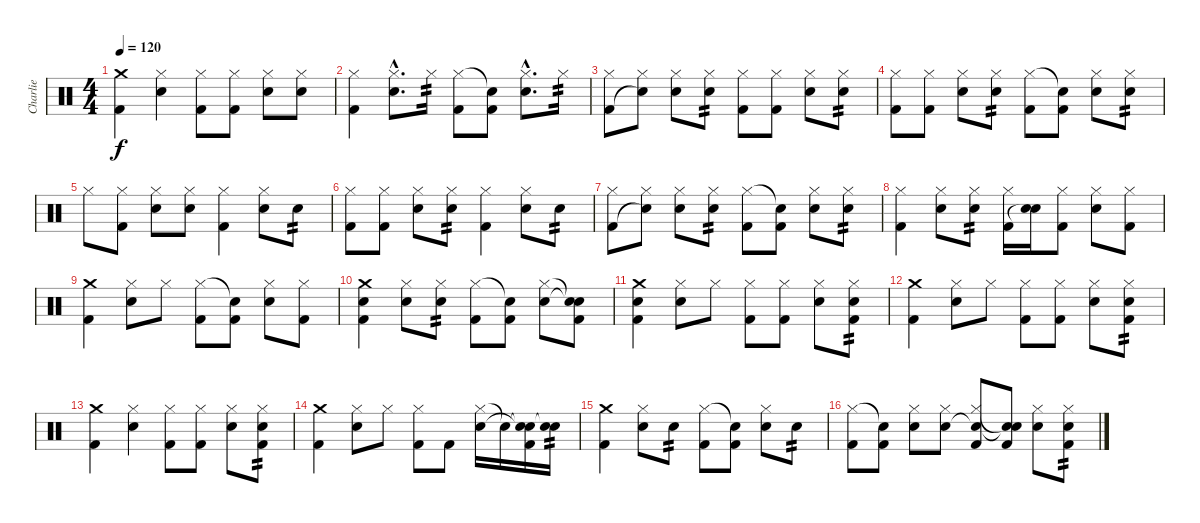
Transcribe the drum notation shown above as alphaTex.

\track ("Charlie" "Charlie") {instrument percussion}
\staff {score}
\articulation defaults
\ts (4 4)
\tempo 120
\clef neutral
\ks c
("Crash medium (hit)" "Kick (hit) 2").4{dy f} ("Hi-Hat (closed)" "Snare (hit) 2").4 ("Hi-Hat (closed)" "Kick (hit) 2").8 ("Hi-Hat (closed)" "Kick (hit) 2").8 ("Hi-Hat (closed)" "Snare (hit) 2").8 ("Hi-Hat (closed)" "Snare (hit) 2").8 |
("Hi-Hat (closed)" "Kick (hit) 2"{x}).4 ("Hi-Hat (closed)"{hac} "Snare (hit) 2"{hac}).8{d} "Hi-Hat (closed)".16{tp 2} ("Hi-Hat (closed)" "Kick (hit) 2").8 ("Snare (hit)"{t} "Kick (hit) 2").8 ("Hi-Hat (closed)"{hac} "Snare (hit) 2"{hac}).8{d} "Hi-Hat (closed)".16{tp 2} |
("Hi-Hat (closed)" "Kick (hit) 2").8 ("Hi-Hat (closed)" "Snare (hit)"{t}).8 ("Hi-Hat (closed)" "Snare (hit) 2").8 ("Hi-Hat (closed)" "Snare (hit) 2").8{tp 2} ("Hi-Hat (closed)" "Kick (hit) 2").8 ("Hi-Hat (closed)" "Kick (hit) 2").8 ("Hi-Hat (closed)" "Snare (hit) 2").8 ("Hi-Hat (closed)" "Snare (hit) 2").8{tp 2} |
("Hi-Hat (closed)" "Kick (hit) 2").8 ("Hi-Hat (closed)" "Kick (hit) 2").8 ("Hi-Hat (closed)" "Snare (hit) 2").8 ("Hi-Hat (closed)" "Snare (hit) 2").8{tp 2} ("Hi-Hat (closed)" "Kick (hit) 2").8 ("Snare (hit)"{t} "Kick (hit) 2").8 ("Hi-Hat (closed)" "Snare (hit) 2").8 ("Hi-Hat (closed)" "Snare (hit) 2").8{tp 2} |
"Hi-Hat (closed)".8 ("Hi-Hat (closed)" "Kick (hit) 2").8 ("Hi-Hat (closed)" "Snare (hit) 2").8 ("Hi-Hat (closed)" "Snare (hit) 2").8 ("Hi-Hat (closed)" "Kick (hit) 2").4 ("Hi-Hat (closed)" "Snare (hit) 2").8 "Snare (hit) 2".8{tp 2} |
("Hi-Hat (closed)" "Kick (hit) 2").8 ("Hi-Hat (closed)" "Kick (hit) 2").8 ("Hi-Hat (closed)" "Snare (hit) 2").8 ("Hi-Hat (closed)" "Snare (hit) 2").8{tp 2} ("Hi-Hat (closed)" "Kick (hit) 2"{x}).4 ("Hi-Hat (closed)" "Snare (hit) 2").8 "Snare (hit) 2".8{tp 2} |
("Hi-Hat (closed)" "Kick (hit) 2").8 ("Hi-Hat (closed)" "Snare (hit)"{t}).8 ("Hi-Hat (closed)" "Snare (hit) 2").8 ("Hi-Hat (closed)" "Snare (hit) 2").8{tp 2} ("Hi-Hat (closed)" "Kick (hit) 2").8 ("Snare (hit)"{t} "Kick (hit) 2").8 ("Hi-Hat (closed)" "Snare (hit) 2").8 ("Hi-Hat (closed)" "Snare (hit) 2").8{tp 2} |
("Hi-Hat (closed)" "Kick (hit) 2").4 ("Hi-Hat (closed)" "Snare (hit) 2").8 ("Hi-Hat (closed)" "Snare (hit) 2").8{tp 2} ("Hi-Hat (closed)" "Kick (hit) 2").16 ("Snare (hit) 2" "Snare (hit)"{t}).16 ("Hi-Hat (closed)" "Kick (hit) 2").8 ("Hi-Hat (closed)" "Snare (hit) 2").8 ("Hi-Hat (closed)" "Kick (hit) 2").8 |
("Crash medium (hit)" "Kick (hit) 2").4 ("Hi-Hat (closed)" "Snare (hit) 2").8 "Hi-Hat (closed)".8 ("Hi-Hat (closed)" "Kick (hit) 2").8 ("Snare (hit)"{t} "Kick (hit) 2").8 ("Hi-Hat (closed)" "Snare (hit) 2").8 ("Hi-Hat (closed)" "Kick (hit) 2").8 |
("Crash medium (hit)" "Snare (hit) 2" "Kick (hit) 2").4 ("Hi-Hat (closed)" "Snare (hit) 2").8 ("Hi-Hat (closed)" "Snare (hit) 2").8{tp 2} ("Hi-Hat (closed)" "Kick (hit) 2").8 ("Snare (hit)"{t} "Kick (hit) 2").8 ("Hi-Hat (closed)" "Snare (hit) 2").8 ("Snare (hit)"{t} "Snare (hit)"{t} "Kick (hit) 2").8 |
("Crash medium (hit)" "Snare (hit) 2" "Kick (hit) 2").4 ("Hi-Hat (closed)" "Snare (hit) 2").8 "Hi-Hat (closed)".8 ("Hi-Hat (closed)" "Kick (hit) 2").8 ("Hi-Hat (closed)" "Kick (hit) 2").8 ("Hi-Hat (closed)" "Snare (hit) 2").8 ("Hi-Hat (closed)" "Snare (hit) 2" "Kick (hit) 2").8{tp 2} |
("Crash medium (hit)" "Kick (hit) 2").4 ("Hi-Hat (closed)" "Snare (hit) 2").8 "Hi-Hat (closed)".8 ("Hi-Hat (closed)" "Kick (hit) 2").8 ("Hi-Hat (closed)" "Kick (hit) 2").8 ("Hi-Hat (closed)" "Snare (hit) 2").8 ("Hi-Hat (closed)" "Snare (hit) 2" "Kick (hit) 2").8{tp 2} |
("Crash medium (hit)" "Kick (hit) 2").4 ("Hi-Hat (closed)" "Snare (hit) 2").4 ("Hi-Hat (closed)" "Kick (hit) 2").8 ("Hi-Hat (closed)" "Kick (hit) 2").8 ("Hi-Hat (closed)" "Snare (hit) 2").8 ("Hi-Hat (closed)" "Snare (hit) 2" "Kick (hit) 2").8{tp 2} |
("Crash medium (hit)" "Kick (hit) 2").4 ("Hi-Hat (closed)" "Snare (hit) 2").8 "Hi-Hat (closed)".8 ("Hi-Hat (closed)" "Kick (hit) 2").8 "Kick (hit) 2".8 ("Hi-Hat (closed)" "Snare (hit) 2").16 "Snare (hit)"{t}.16 ("Snare (hit)"{t} "Snare (hit)"{t} "Kick (hit) 2").16 ("Snare (hit) 2" "Snare (hit)"{t}).16{tp 2} |
("Crash medium (hit)" "Kick (hit) 2").4 ("Hi-Hat (closed)" "Snare (hit) 2").8 "Snare (hit) 2".8{tp 2} ("Hi-Hat (closed)" "Kick (hit) 2").8 ("Snare (hit)"{t} "Kick (hit) 2").8 ("Hi-Hat (closed)" "Snare (hit) 2").8 "Snare (hit) 2".8{tp 2} |
("Hi-Hat (closed)" "Kick (hit) 2").8 ("Snare (hit)"{t} "Kick (hit) 2").8 ("Hi-Hat (closed)" "Snare (hit) 2").8 ("Hi-Hat (closed)" "Snare (hit) 2").8 ("Hi-Hat (closed)" "Snare (hit)"{t} "Kick (hit) 2").8 ("Snare (hit)"{t} "Snare (hit)"{t} "Kick (hit) 2").8 ("Hi-Hat (closed)" "Snare (hit) 2").8 ("Hi-Hat (closed)" "Snare (hit) 2" "Kick (hit) 2").8{tp 2}
